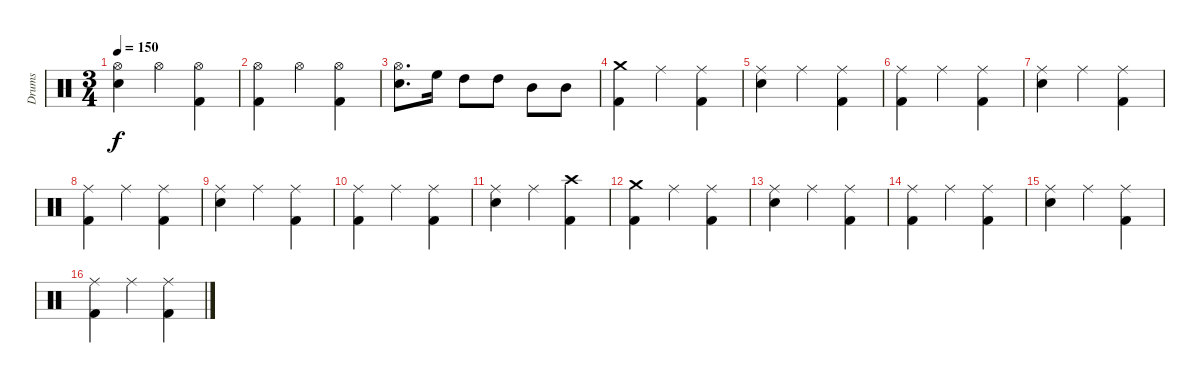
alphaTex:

\track ("Drums" "Drums") {instrument percussion}
\staff {score}
\articulation defaults
\ts (3 4)
\tempo 150
\clef neutral
\ks c
("Hi-Hat (open)" "Electric Snare (hit)").4{dy f} "Hi-Hat (open)".4 ("Hi-Hat (open)" "Kick (hit) 2").4 |
("Hi-Hat (open)" "Kick (hit) 2").4 "Hi-Hat (open)".4 ("Hi-Hat (open)" "Kick (hit) 2").4 |
("Hi-Hat (open)" "Electric Snare (hit)").8{d} "High Floor Tom (hit)".16 "High Tom (hit)".8 "High Tom (hit)".8 "Mid Tom (hit)".8 "Mid Tom (hit)".8 |
("Crash medium (hit)" "Kick (hit) 2").4 "Ride (middle)".4 ("Ride (middle)" "Kick (hit) 2").4 |
("Ride (middle)" "Electric Snare (hit)").4 "Ride (middle)".4 ("Ride (middle)" "Kick (hit) 2").4 |
("Ride (middle)" "Kick (hit) 2").4 "Ride (middle)".4 ("Ride (middle)" "Kick (hit) 2").4 |
("Ride (middle)" "Electric Snare (hit)").4 "Ride (middle)".4 ("Ride (middle)" "Kick (hit) 2").4 |
("Ride (middle)" "Kick (hit) 2").4 "Ride (middle)".4 ("Ride (middle)" "Kick (hit) 2").4 |
("Ride (middle)" "Electric Snare (hit)").4 "Ride (middle)".4 ("Ride (middle)" "Kick (hit) 2").4 |
("Ride (middle)" "Kick (hit) 2").4 "Ride (middle)".4 ("Ride (middle)" "Kick (hit) 2").4 |
("Ride (middle)" "Electric Snare (hit)").4 "Ride (middle)".4 ("Crash high (hit)" "Kick (hit) 2").4 |
("Crash medium (hit)" "Kick (hit) 2").4 "Ride (middle)".4 ("Ride (middle)" "Kick (hit) 2").4 |
("Ride (middle)" "Electric Snare (hit)").4 "Ride (middle)".4 ("Ride (middle)" "Kick (hit) 2").4 |
("Ride (middle)" "Kick (hit) 2").4 "Ride (middle)".4 ("Ride (middle)" "Kick (hit) 2").4 |
("Ride (middle)" "Electric Snare (hit)").4 "Ride (middle)".4 ("Ride (middle)" "Kick (hit) 2").4 |
("Ride (middle)" "Kick (hit) 2").4 "Ride (middle)".4 ("Ride (middle)" "Kick (hit) 2").4
